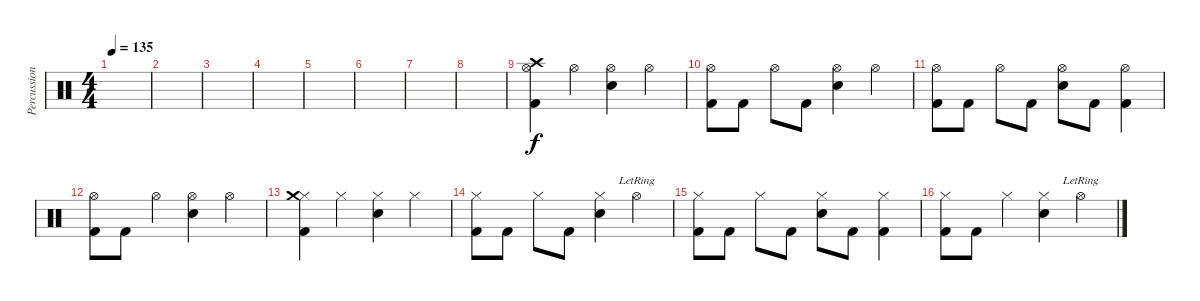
\track ("Percussion" "Percussion") {instrument percussion}
\staff {score}
\articulation defaults
\ts (4 4)
\tempo 135
\clef neutral
\ks c
|
|
|
|
|
|
|
|
("Kick (hit) 2" "Hi-Hat (open)" "Crash high (hit)").4 "Hi-Hat (open)".4 ("Electric Snare (hit)" "Hi-Hat (open)").4 "Hi-Hat (open)".4 |
("Kick (hit) 2" "Hi-Hat (open)").8 "Kick (hit) 2".8 "Hi-Hat (open)".8 "Kick (hit) 2".8 ("Electric Snare (hit)" "Hi-Hat (open)").4 "Hi-Hat (open)".4 |
("Kick (hit) 2" "Hi-Hat (open)").8 "Kick (hit) 2".8 "Hi-Hat (open)".8 "Kick (hit) 2".8 ("Electric Snare (hit)" "Hi-Hat (open)").8 "Kick (hit) 2".8 ("Kick (hit) 2" "Hi-Hat (open)").4 |
("Kick (hit) 2" "Hi-Hat (open)").8 "Kick (hit) 2".8 "Hi-Hat (open)".4 ("Electric Snare (hit)" "Hi-Hat (open)").4 "Hi-Hat (open)".4 |
("Kick (hit) 2" "Hi-Hat (closed)" "Crash medium (hit)").4 "Hi-Hat (closed)".4 ("Electric Snare (hit)" "Hi-Hat (closed)").4 "Hi-Hat (closed)".4 |
("Kick (hit) 2" "Hi-Hat (closed)").8 "Kick (hit) 2".8 "Hi-Hat (closed)".8 "Kick (hit) 2".8 ("Electric Snare (hit)" "Hi-Hat (closed)").4 "Hi-Hat (open)"{lr}.4 |
("Kick (hit) 2" "Hi-Hat (closed)").8 "Kick (hit) 2".8 "Hi-Hat (closed)".8 "Kick (hit) 2".8 ("Electric Snare (hit)" "Hi-Hat (closed)").8 "Kick (hit) 2".8 ("Kick (hit) 2" "Hi-Hat (closed)").4 |
("Kick (hit) 2" "Hi-Hat (closed)").8 "Kick (hit) 2".8 "Hi-Hat (closed)".4 ("Electric Snare (hit)" "Hi-Hat (closed)").4 "Hi-Hat (open)"{lr}.4
